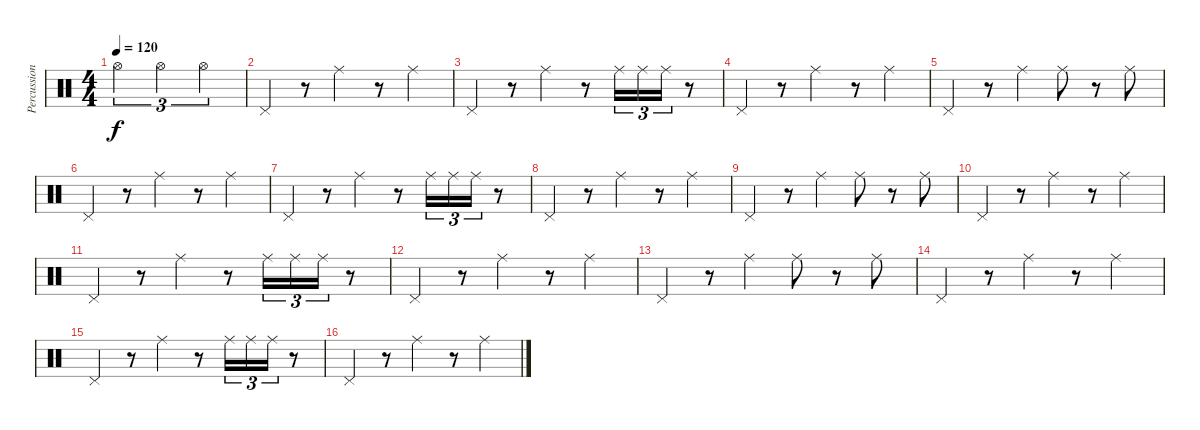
\track ("Percussion" "Percussion") {instrument percussion}
\staff {score}
\articulation defaults
\ts (4 4)
\tempo 120
\clef neutral
\ks c "Hi-Hat (open)".2{tu (3 2) dy f} "Hi-Hat (open)".2{tu (3 2)} "Hi-Hat (open)".2{tu (3 2)}
|
"Pedal Hi-Hat (hit)".4 r.8 "Ride (middle)".4 r.8 "Ride (middle)".4 |
"Pedal Hi-Hat (hit)".4 r.8 "Ride (middle)".4 r.8 "Ride (middle)".16{tu (3 2)} "Ride (middle)".16{tu (3 2)} "Ride (middle)".16{tu (3 2)} r.8 |
"Pedal Hi-Hat (hit)".4 r.8 "Ride (middle)".4 r.8 "Ride (middle)".4 |
"Pedal Hi-Hat (hit)".4 r.8 "Ride (middle)".4 "Ride (middle)".8 r.8 "Ride (middle)".8 |
"Pedal Hi-Hat (hit)".4 r.8 "Ride (middle)".4 r.8 "Ride (middle)".4 |
"Pedal Hi-Hat (hit)".4 r.8 "Ride (middle)".4 r.8 "Ride (middle)".16{tu (3 2)} "Ride (middle)".16{tu (3 2)} "Ride (middle)".16{tu (3 2)} r.8 |
"Pedal Hi-Hat (hit)".4 r.8 "Ride (middle)".4 r.8 "Ride (middle)".4 |
"Pedal Hi-Hat (hit)".4 r.8 "Ride (middle)".4 "Ride (middle)".8 r.8 "Ride (middle)".8 |
"Pedal Hi-Hat (hit)".4 r.8 "Ride (middle)".4 r.8 "Ride (middle)".4 |
"Pedal Hi-Hat (hit)".4 r.8 "Ride (middle)".4 r.8 "Ride (middle)".16{tu (3 2)} "Ride (middle)".16{tu (3 2)} "Ride (middle)".16{tu (3 2)} r.8 |
"Pedal Hi-Hat (hit)".4 r.8 "Ride (middle)".4 r.8 "Ride (middle)".4 |
"Pedal Hi-Hat (hit)".4 r.8 "Ride (middle)".4 "Ride (middle)".8 r.8 "Ride (middle)".8 |
"Pedal Hi-Hat (hit)".4 r.8 "Ride (middle)".4 r.8 "Ride (middle)".4 |
"Pedal Hi-Hat (hit)".4 r.8 "Ride (middle)".4 r.8 "Ride (middle)".16{tu (3 2)} "Ride (middle)".16{tu (3 2)} "Ride (middle)".16{tu (3 2)} r.8 |
"Pedal Hi-Hat (hit)".4 r.8 "Ride (middle)".4 r.8 "Ride (middle)".4
